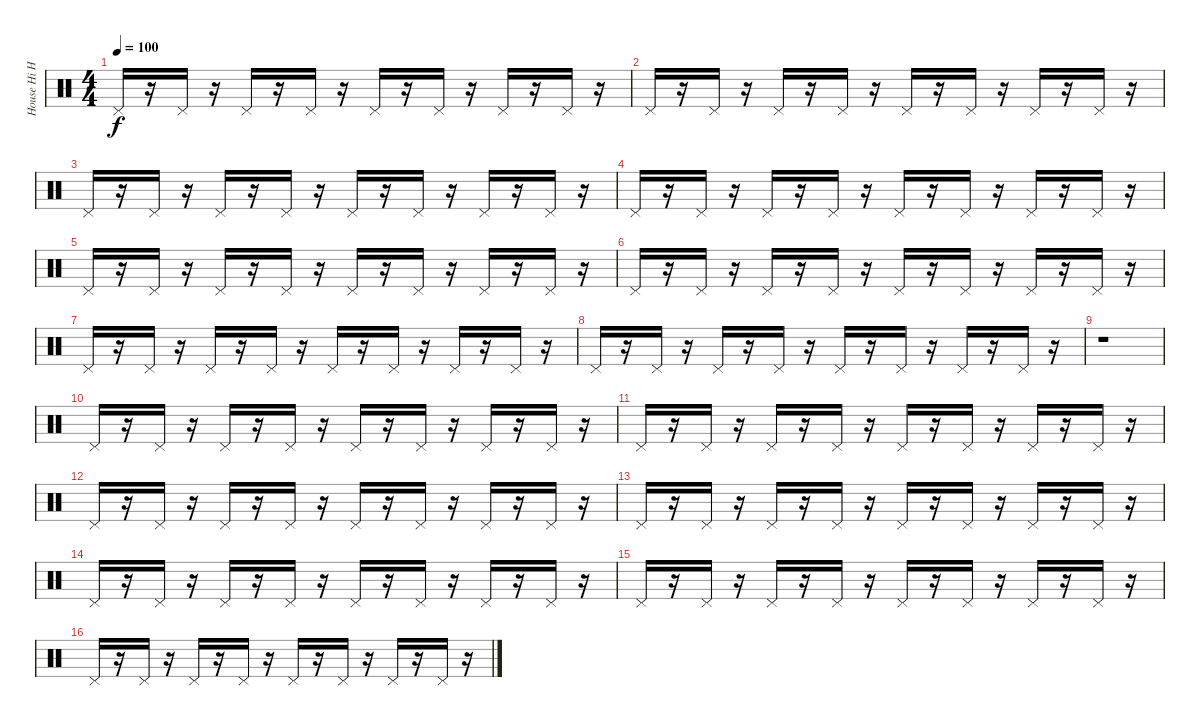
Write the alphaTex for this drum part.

\track ("House Hi Hat" "House Hi H") {instrument percussion}
\staff {score}
\articulation defaults
\ts (4 4)
\tempo 100
\clef neutral
\ks c "Pedal Hi-Hat (hit)".16{dy f}
r.16 "Pedal Hi-Hat (hit)".16 r.16 "Pedal Hi-Hat (hit)".16 r.16 "Pedal Hi-Hat (hit)".16 r.16 "Pedal Hi-Hat (hit)".16 r.16 "Pedal Hi-Hat (hit)".16 r.16 "Pedal Hi-Hat (hit)".16 r.16 "Pedal Hi-Hat (hit)".16 r.16 |
"Pedal Hi-Hat (hit)".16 r.16 "Pedal Hi-Hat (hit)".16 r.16 "Pedal Hi-Hat (hit)".16 r.16 "Pedal Hi-Hat (hit)".16 r.16 "Pedal Hi-Hat (hit)".16 r.16 "Pedal Hi-Hat (hit)".16 r.16 "Pedal Hi-Hat (hit)".16 r.16 "Pedal Hi-Hat (hit)".16 r.16 |
"Pedal Hi-Hat (hit)".16 r.16 "Pedal Hi-Hat (hit)".16 r.16 "Pedal Hi-Hat (hit)".16 r.16 "Pedal Hi-Hat (hit)".16 r.16 "Pedal Hi-Hat (hit)".16 r.16 "Pedal Hi-Hat (hit)".16 r.16 "Pedal Hi-Hat (hit)".16 r.16 "Pedal Hi-Hat (hit)".16 r.16 |
"Pedal Hi-Hat (hit)".16 r.16 "Pedal Hi-Hat (hit)".16 r.16 "Pedal Hi-Hat (hit)".16 r.16 "Pedal Hi-Hat (hit)".16 r.16 "Pedal Hi-Hat (hit)".16 r.16 "Pedal Hi-Hat (hit)".16 r.16 "Pedal Hi-Hat (hit)".16 r.16 "Pedal Hi-Hat (hit)".16 r.16 |
"Pedal Hi-Hat (hit)".16 r.16 "Pedal Hi-Hat (hit)".16 r.16 "Pedal Hi-Hat (hit)".16 r.16 "Pedal Hi-Hat (hit)".16 r.16 "Pedal Hi-Hat (hit)".16 r.16 "Pedal Hi-Hat (hit)".16 r.16 "Pedal Hi-Hat (hit)".16 r.16 "Pedal Hi-Hat (hit)".16 r.16 |
"Pedal Hi-Hat (hit)".16 r.16 "Pedal Hi-Hat (hit)".16 r.16 "Pedal Hi-Hat (hit)".16 r.16 "Pedal Hi-Hat (hit)".16 r.16 "Pedal Hi-Hat (hit)".16 r.16 "Pedal Hi-Hat (hit)".16 r.16 "Pedal Hi-Hat (hit)".16 r.16 "Pedal Hi-Hat (hit)".16 r.16 |
"Pedal Hi-Hat (hit)".16 r.16 "Pedal Hi-Hat (hit)".16 r.16 "Pedal Hi-Hat (hit)".16 r.16 "Pedal Hi-Hat (hit)".16 r.16 "Pedal Hi-Hat (hit)".16 r.16 "Pedal Hi-Hat (hit)".16 r.16 "Pedal Hi-Hat (hit)".16 r.16 "Pedal Hi-Hat (hit)".16 r.16 |
"Pedal Hi-Hat (hit)".16 r.16 "Pedal Hi-Hat (hit)".16 r.16 "Pedal Hi-Hat (hit)".16 r.16 "Pedal Hi-Hat (hit)".16 r.16 "Pedal Hi-Hat (hit)".16 r.16 "Pedal Hi-Hat (hit)".16 r.16 "Pedal Hi-Hat (hit)".16 r.16 "Pedal Hi-Hat (hit)".16 r.16 |
r.1 |
"Pedal Hi-Hat (hit)".16 r.16 "Pedal Hi-Hat (hit)".16 r.16 "Pedal Hi-Hat (hit)".16 r.16 "Pedal Hi-Hat (hit)".16 r.16 "Pedal Hi-Hat (hit)".16 r.16 "Pedal Hi-Hat (hit)".16 r.16 "Pedal Hi-Hat (hit)".16 r.16 "Pedal Hi-Hat (hit)".16 r.16 |
"Pedal Hi-Hat (hit)".16 r.16 "Pedal Hi-Hat (hit)".16 r.16 "Pedal Hi-Hat (hit)".16 r.16 "Pedal Hi-Hat (hit)".16 r.16 "Pedal Hi-Hat (hit)".16 r.16 "Pedal Hi-Hat (hit)".16 r.16 "Pedal Hi-Hat (hit)".16 r.16 "Pedal Hi-Hat (hit)".16 r.16 |
"Pedal Hi-Hat (hit)".16 r.16 "Pedal Hi-Hat (hit)".16 r.16 "Pedal Hi-Hat (hit)".16 r.16 "Pedal Hi-Hat (hit)".16 r.16 "Pedal Hi-Hat (hit)".16 r.16 "Pedal Hi-Hat (hit)".16 r.16 "Pedal Hi-Hat (hit)".16 r.16 "Pedal Hi-Hat (hit)".16 r.16 |
"Pedal Hi-Hat (hit)".16 r.16 "Pedal Hi-Hat (hit)".16 r.16 "Pedal Hi-Hat (hit)".16 r.16 "Pedal Hi-Hat (hit)".16 r.16 "Pedal Hi-Hat (hit)".16 r.16 "Pedal Hi-Hat (hit)".16 r.16 "Pedal Hi-Hat (hit)".16 r.16 "Pedal Hi-Hat (hit)".16 r.16 |
"Pedal Hi-Hat (hit)".16 r.16 "Pedal Hi-Hat (hit)".16 r.16 "Pedal Hi-Hat (hit)".16 r.16 "Pedal Hi-Hat (hit)".16 r.16 "Pedal Hi-Hat (hit)".16 r.16 "Pedal Hi-Hat (hit)".16 r.16 "Pedal Hi-Hat (hit)".16 r.16 "Pedal Hi-Hat (hit)".16 r.16 |
"Pedal Hi-Hat (hit)".16 r.16 "Pedal Hi-Hat (hit)".16 r.16 "Pedal Hi-Hat (hit)".16 r.16 "Pedal Hi-Hat (hit)".16 r.16 "Pedal Hi-Hat (hit)".16 r.16 "Pedal Hi-Hat (hit)".16 r.16 "Pedal Hi-Hat (hit)".16 r.16 "Pedal Hi-Hat (hit)".16 r.16 |
"Pedal Hi-Hat (hit)".16 r.16 "Pedal Hi-Hat (hit)".16 r.16 "Pedal Hi-Hat (hit)".16 r.16 "Pedal Hi-Hat (hit)".16 r.16 "Pedal Hi-Hat (hit)".16 r.16 "Pedal Hi-Hat (hit)".16 r.16 "Pedal Hi-Hat (hit)".16 r.16 "Pedal Hi-Hat (hit)".16 r.16
